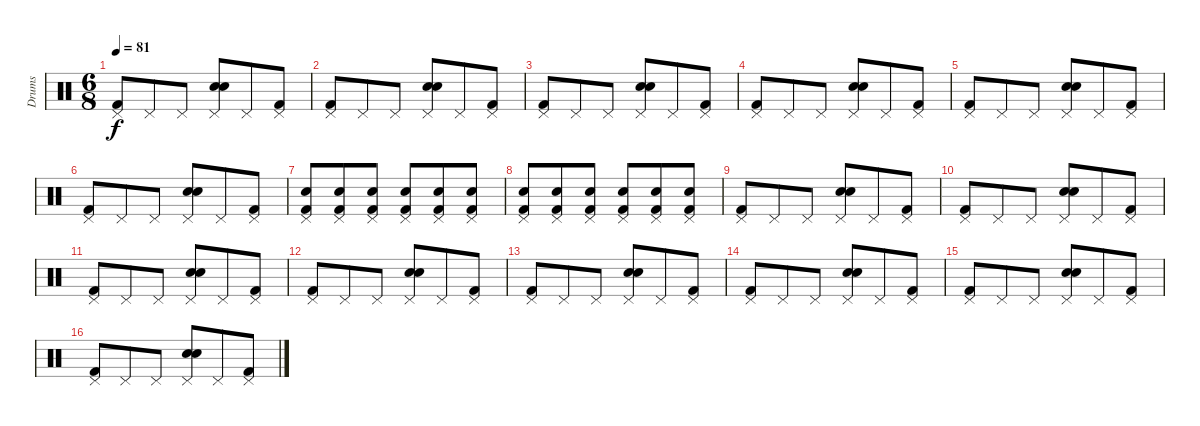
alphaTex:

\track ("Drums" "Drums") {instrument percussion}
\staff {score}
\articulation defaults
\ts (6 8)
\tempo 81
\clef neutral
\ks c
("Kick (hit) 2" "Pedal Hi-Hat (hit)").8{dy f} "Pedal Hi-Hat (hit)".8 "Pedal Hi-Hat (hit)".8 ("Electric Snare (hit)" "Snare (hit) 2" "Pedal Hi-Hat (hit)").8 "Pedal Hi-Hat (hit)".8 ("Kick (hit) 2" "Pedal Hi-Hat (hit)").8 |
("Kick (hit) 2" "Pedal Hi-Hat (hit)").8 "Pedal Hi-Hat (hit)".8 "Pedal Hi-Hat (hit)".8 ("Electric Snare (hit)" "Snare (hit) 2" "Pedal Hi-Hat (hit)").8 "Pedal Hi-Hat (hit)".8 ("Kick (hit) 2" "Pedal Hi-Hat (hit)").8 |
("Kick (hit) 2" "Pedal Hi-Hat (hit)").8 "Pedal Hi-Hat (hit)".8 "Pedal Hi-Hat (hit)".8 ("Electric Snare (hit)" "Snare (hit) 2" "Pedal Hi-Hat (hit)").8 "Pedal Hi-Hat (hit)".8 ("Kick (hit) 2" "Pedal Hi-Hat (hit)").8 |
("Kick (hit) 2" "Pedal Hi-Hat (hit)").8 "Pedal Hi-Hat (hit)".8 "Pedal Hi-Hat (hit)".8 ("Electric Snare (hit)" "Snare (hit) 2" "Pedal Hi-Hat (hit)").8 "Pedal Hi-Hat (hit)".8 ("Kick (hit) 2" "Pedal Hi-Hat (hit)").8 |
("Kick (hit) 2" "Pedal Hi-Hat (hit)").8 "Pedal Hi-Hat (hit)".8 "Pedal Hi-Hat (hit)".8 ("Electric Snare (hit)" "Snare (hit) 2" "Pedal Hi-Hat (hit)").8 "Pedal Hi-Hat (hit)".8 ("Kick (hit) 2" "Pedal Hi-Hat (hit)").8 |
("Kick (hit) 2" "Pedal Hi-Hat (hit)").8 "Pedal Hi-Hat (hit)".8 "Pedal Hi-Hat (hit)".8 ("Electric Snare (hit)" "Snare (hit) 2" "Pedal Hi-Hat (hit)").8 "Pedal Hi-Hat (hit)".8 ("Kick (hit) 2" "Pedal Hi-Hat (hit)").8 |
("Kick (hit) 2" "Electric Snare (hit)" "Pedal Hi-Hat (hit)").8 ("Kick (hit) 2" "Electric Snare (hit)" "Pedal Hi-Hat (hit)").8 ("Kick (hit) 2" "Electric Snare (hit)" "Pedal Hi-Hat (hit)").8 ("Kick (hit) 2" "Electric Snare (hit)" "Pedal Hi-Hat (hit)").8 ("Kick (hit) 2" "Electric Snare (hit)" "Pedal Hi-Hat (hit)").8 ("Kick (hit) 2" "Electric Snare (hit)" "Pedal Hi-Hat (hit)").8 |
("Kick (hit) 2" "Electric Snare (hit)" "Pedal Hi-Hat (hit)").8 ("Kick (hit) 2" "Electric Snare (hit)" "Pedal Hi-Hat (hit)").8 ("Kick (hit) 2" "Electric Snare (hit)" "Pedal Hi-Hat (hit)").8 ("Kick (hit) 2" "Electric Snare (hit)" "Pedal Hi-Hat (hit)").8 ("Kick (hit) 2" "Electric Snare (hit)" "Pedal Hi-Hat (hit)").8 ("Kick (hit) 2" "Electric Snare (hit)" "Pedal Hi-Hat (hit)").8 |
("Kick (hit) 2" "Pedal Hi-Hat (hit)").8 "Pedal Hi-Hat (hit)".8 "Pedal Hi-Hat (hit)".8 ("Electric Snare (hit)" "Snare (hit) 2" "Pedal Hi-Hat (hit)").8 "Pedal Hi-Hat (hit)".8 ("Kick (hit) 2" "Pedal Hi-Hat (hit)").8 |
("Kick (hit) 2" "Pedal Hi-Hat (hit)").8 "Pedal Hi-Hat (hit)".8 "Pedal Hi-Hat (hit)".8 ("Electric Snare (hit)" "Snare (hit) 2" "Pedal Hi-Hat (hit)").8 "Pedal Hi-Hat (hit)".8 ("Kick (hit) 2" "Pedal Hi-Hat (hit)").8 |
("Kick (hit) 2" "Pedal Hi-Hat (hit)").8 "Pedal Hi-Hat (hit)".8 "Pedal Hi-Hat (hit)".8 ("Electric Snare (hit)" "Snare (hit) 2" "Pedal Hi-Hat (hit)").8 "Pedal Hi-Hat (hit)".8 ("Kick (hit) 2" "Pedal Hi-Hat (hit)").8 |
("Kick (hit) 2" "Pedal Hi-Hat (hit)").8 "Pedal Hi-Hat (hit)".8 "Pedal Hi-Hat (hit)".8 ("Electric Snare (hit)" "Snare (hit) 2" "Pedal Hi-Hat (hit)").8 "Pedal Hi-Hat (hit)".8 ("Kick (hit) 2" "Pedal Hi-Hat (hit)").8 |
("Kick (hit) 2" "Pedal Hi-Hat (hit)").8 "Pedal Hi-Hat (hit)".8 "Pedal Hi-Hat (hit)".8 ("Electric Snare (hit)" "Snare (hit) 2" "Pedal Hi-Hat (hit)").8 "Pedal Hi-Hat (hit)".8 ("Kick (hit) 2" "Pedal Hi-Hat (hit)").8 |
("Kick (hit) 2" "Pedal Hi-Hat (hit)").8 "Pedal Hi-Hat (hit)".8 "Pedal Hi-Hat (hit)".8 ("Electric Snare (hit)" "Snare (hit) 2" "Pedal Hi-Hat (hit)").8 "Pedal Hi-Hat (hit)".8 ("Kick (hit) 2" "Pedal Hi-Hat (hit)").8 |
("Kick (hit) 2" "Pedal Hi-Hat (hit)").8 "Pedal Hi-Hat (hit)".8 "Pedal Hi-Hat (hit)".8 ("Electric Snare (hit)" "Snare (hit) 2" "Pedal Hi-Hat (hit)").8 "Pedal Hi-Hat (hit)".8 ("Kick (hit) 2" "Pedal Hi-Hat (hit)").8 |
("Kick (hit) 2" "Pedal Hi-Hat (hit)").8 "Pedal Hi-Hat (hit)".8 "Pedal Hi-Hat (hit)".8 ("Electric Snare (hit)" "Snare (hit) 2" "Pedal Hi-Hat (hit)").8 "Pedal Hi-Hat (hit)".8 ("Kick (hit) 2" "Pedal Hi-Hat (hit)").8
